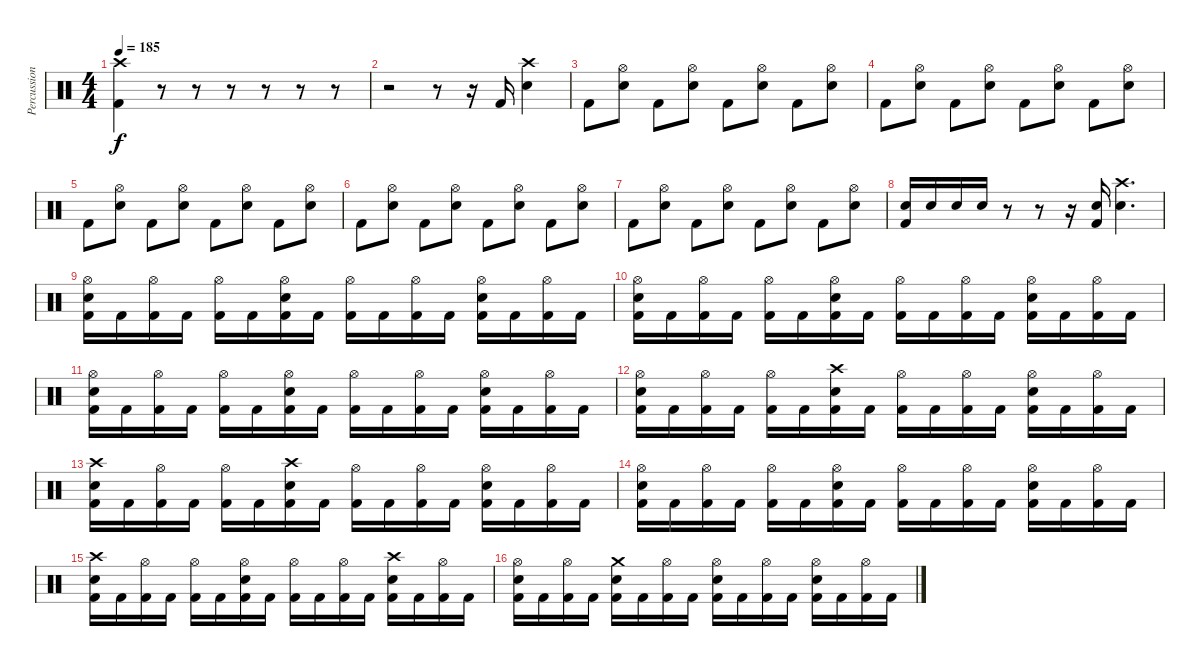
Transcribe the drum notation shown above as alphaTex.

\track ("Percussion" "Percussion") {instrument percussion}
\staff {score}
\articulation defaults
\ts (4 4)
\tempo 185
\clef neutral
\ks c
("Crash high (hit)" "Kick (hit) 2").4{dy f} r.8{volume 0} r.8 r.8 r.8 r.8 r.8 |
r.2 r.8 r.16 "Kick (hit) 2".16{volume 13} ("Crash high (hit)" "Electric Snare (hit)").4 |
"Kick (hit) 2".8{volume 13} ("Hi-Hat (open)" "Electric Snare (hit)").8 "Kick (hit) 2".8 ("Hi-Hat (open)" "Electric Snare (hit)").8 "Kick (hit) 2".8 ("Hi-Hat (open)" "Electric Snare (hit)").8 "Kick (hit) 2".8 ("Hi-Hat (open)" "Electric Snare (hit)").8 |
"Kick (hit) 2".8 ("Hi-Hat (open)" "Electric Snare (hit)").8 "Kick (hit) 2".8 ("Hi-Hat (open)" "Electric Snare (hit)").8 "Kick (hit) 2".8 ("Hi-Hat (open)" "Electric Snare (hit)").8 "Kick (hit) 2".8 ("Hi-Hat (open)" "Electric Snare (hit)").8 |
"Kick (hit) 2".8 ("Hi-Hat (open)" "Electric Snare (hit)").8 "Kick (hit) 2".8 ("Hi-Hat (open)" "Electric Snare (hit)").8 "Kick (hit) 2".8 ("Hi-Hat (open)" "Electric Snare (hit)").8 "Kick (hit) 2".8 ("Hi-Hat (open)" "Electric Snare (hit)").8 |
"Kick (hit) 2".8 ("Hi-Hat (open)" "Electric Snare (hit)").8 "Kick (hit) 2".8 ("Hi-Hat (open)" "Electric Snare (hit)").8 "Kick (hit) 2".8 ("Hi-Hat (open)" "Electric Snare (hit)").8 "Kick (hit) 2".8 ("Hi-Hat (open)" "Electric Snare (hit)").8 |
"Kick (hit) 2".8 ("Hi-Hat (open)" "Electric Snare (hit)").8 "Kick (hit) 2".8 ("Hi-Hat (open)" "Electric Snare (hit)").8 "Kick (hit) 2".8 ("Hi-Hat (open)" "Electric Snare (hit)").8 "Kick (hit) 2".8 ("Hi-Hat (open)" "Electric Snare (hit)").8 |
("Electric Snare (hit)" "Kick (hit) 2").16 "Electric Snare (hit)".16 "Electric Snare (hit)".16 "Electric Snare (hit)".16 r.8 r.8 r.16 ("Electric Snare (hit)" "Kick (hit) 2").16 ("Crash high (hit)" "Electric Snare (hit)").4{d} |
("Hi-Hat (open)" "Electric Snare (hit)" "Kick (hit) 2").16 "Kick (hit) 2".16 ("Hi-Hat (open)" "Kick (hit) 2").16 "Kick (hit) 2".16 ("Hi-Hat (open)" "Kick (hit) 2").16 "Kick (hit) 2".16 ("Hi-Hat (open)" "Electric Snare (hit)" "Kick (hit) 2").16 "Kick (hit) 2".16 ("Hi-Hat (open)" "Kick (hit) 2").16 "Kick (hit) 2".16 ("Hi-Hat (open)" "Kick (hit) 2").16 "Kick (hit) 2".16 ("Hi-Hat (open)" "Electric Snare (hit)" "Kick (hit) 2").16 "Kick (hit) 2".16 ("Hi-Hat (open)" "Kick (hit) 2").16 "Kick (hit) 2".16 |
("Hi-Hat (open)" "Electric Snare (hit)" "Kick (hit) 2").16 "Kick (hit) 2".16 ("Hi-Hat (open)" "Kick (hit) 2").16 "Kick (hit) 2".16 ("Hi-Hat (open)" "Kick (hit) 2").16 "Kick (hit) 2".16 ("Hi-Hat (open)" "Electric Snare (hit)" "Kick (hit) 2").16 "Kick (hit) 2".16 ("Hi-Hat (open)" "Kick (hit) 2").16 "Kick (hit) 2".16 ("Hi-Hat (open)" "Kick (hit) 2").16 "Kick (hit) 2".16 ("Hi-Hat (open)" "Electric Snare (hit)" "Kick (hit) 2").16 "Kick (hit) 2".16 ("Hi-Hat (open)" "Kick (hit) 2").16 "Kick (hit) 2".16 |
("Hi-Hat (open)" "Electric Snare (hit)" "Kick (hit) 2").16 "Kick (hit) 2".16 ("Hi-Hat (open)" "Kick (hit) 2").16 "Kick (hit) 2".16 ("Hi-Hat (open)" "Kick (hit) 2").16 "Kick (hit) 2".16 ("Hi-Hat (open)" "Electric Snare (hit)" "Kick (hit) 2").16 "Kick (hit) 2".16 ("Hi-Hat (open)" "Kick (hit) 2").16 "Kick (hit) 2".16 ("Hi-Hat (open)" "Kick (hit) 2").16 "Kick (hit) 2".16 ("Hi-Hat (open)" "Electric Snare (hit)" "Kick (hit) 2").16 "Kick (hit) 2".16 ("Hi-Hat (open)" "Kick (hit) 2").16 "Kick (hit) 2".16 |
("Hi-Hat (open)" "Electric Snare (hit)" "Kick (hit) 2").16 "Kick (hit) 2".16 ("Hi-Hat (open)" "Kick (hit) 2").16 "Kick (hit) 2".16 ("Hi-Hat (open)" "Kick (hit) 2").16 "Kick (hit) 2".16 ("Crash high (hit)" "Electric Snare (hit)" "Kick (hit) 2").16 "Kick (hit) 2".16 ("Hi-Hat (open)" "Kick (hit) 2").16 "Kick (hit) 2".16 ("Hi-Hat (open)" "Kick (hit) 2").16 "Kick (hit) 2".16 ("Hi-Hat (open)" "Electric Snare (hit)" "Kick (hit) 2").16 "Kick (hit) 2".16 ("Hi-Hat (open)" "Kick (hit) 2").16 "Kick (hit) 2".16 |
("Crash high (hit)" "Electric Snare (hit)" "Kick (hit) 2").16 "Kick (hit) 2".16 ("Hi-Hat (open)" "Kick (hit) 2").16 "Kick (hit) 2".16 ("Hi-Hat (open)" "Kick (hit) 2").16 "Kick (hit) 2".16 ("Crash high (hit)" "Electric Snare (hit)" "Kick (hit) 2").16 "Kick (hit) 2".16 ("Hi-Hat (open)" "Kick (hit) 2").16 "Kick (hit) 2".16 ("Hi-Hat (open)" "Kick (hit) 2").16 "Kick (hit) 2".16 ("Hi-Hat (open)" "Electric Snare (hit)" "Kick (hit) 2").16 "Kick (hit) 2".16 ("Hi-Hat (open)" "Kick (hit) 2").16 "Kick (hit) 2".16 |
("Hi-Hat (open)" "Electric Snare (hit)" "Kick (hit) 2").16 "Kick (hit) 2".16 ("Hi-Hat (open)" "Kick (hit) 2").16 "Kick (hit) 2".16 ("Hi-Hat (open)" "Kick (hit) 2").16 "Kick (hit) 2".16 ("Hi-Hat (open)" "Electric Snare (hit)" "Kick (hit) 2").16 "Kick (hit) 2".16 ("Hi-Hat (open)" "Kick (hit) 2").16 "Kick (hit) 2".16 ("Hi-Hat (open)" "Kick (hit) 2").16 "Kick (hit) 2".16 ("Hi-Hat (open)" "Electric Snare (hit)" "Kick (hit) 2").16 "Kick (hit) 2".16 ("Hi-Hat (open)" "Kick (hit) 2").16 "Kick (hit) 2".16 |
("Crash high (hit)" "Electric Snare (hit)" "Kick (hit) 2").16 "Kick (hit) 2".16 ("Hi-Hat (open)" "Kick (hit) 2").16 "Kick (hit) 2".16 ("Hi-Hat (open)" "Kick (hit) 2").16 "Kick (hit) 2".16 ("Hi-Hat (open)" "Electric Snare (hit)" "Kick (hit) 2").16 "Kick (hit) 2".16 ("Hi-Hat (open)" "Kick (hit) 2").16 "Kick (hit) 2".16 ("Hi-Hat (open)" "Kick (hit) 2").16 "Kick (hit) 2".16 ("Crash high (hit)" "Electric Snare (hit)" "Kick (hit) 2").16 "Kick (hit) 2".16 ("Hi-Hat (open)" "Kick (hit) 2").16 "Kick (hit) 2".16 |
("Hi-Hat (open)" "Electric Snare (hit)" "Kick (hit) 2").16 "Kick (hit) 2".16 ("Hi-Hat (open)" "Kick (hit) 2").16 "Kick (hit) 2".16 ("Crash medium (hit)" "Electric Snare (hit)" "Kick (hit) 2").16 "Kick (hit) 2".16 ("Hi-Hat (open)" "Kick (hit) 2").16 "Kick (hit) 2".16 ("Hi-Hat (open)" "Electric Snare (hit)" "Kick (hit) 2").16 "Kick (hit) 2".16 ("Hi-Hat (open)" "Kick (hit) 2").16 "Kick (hit) 2".16 ("Hi-Hat (open)" "Electric Snare (hit)" "Kick (hit) 2").16 "Kick (hit) 2".16 ("Hi-Hat (open)" "Kick (hit) 2").16 "Kick (hit) 2".16
